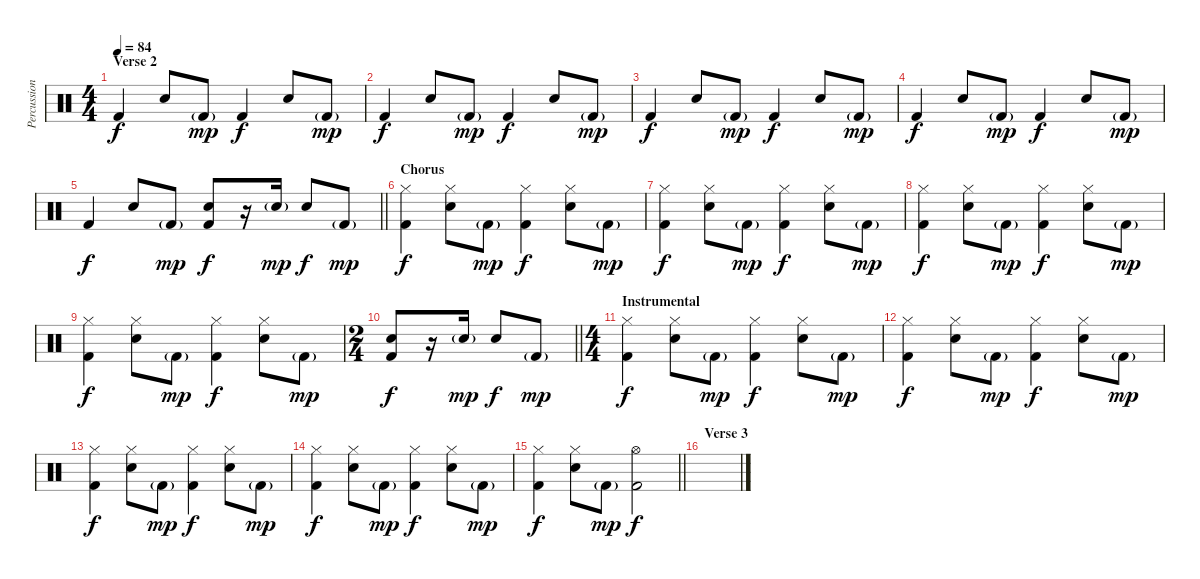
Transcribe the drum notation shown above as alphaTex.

\track ("Percussion" "Percussion") {instrument percussion}
\staff {score}
\articulation defaults
\ts (4 4)
\section ("" "Verse 2")
\tempo 84
\clef neutral
\ks c "Kick (hit) 2".4{dy f} "Snare (hit) 2".8 "Kick (hit) 2"{g}.8{dy mp} "Kick (hit) 2".4{dy f} "Snare (hit) 2".8 "Kick (hit) 2"{g}.8{dy mp}
|
"Kick (hit) 2".4{dy f} "Snare (hit) 2".8 "Kick (hit) 2"{g}.8{dy mp} "Kick (hit) 2".4{dy f} "Snare (hit) 2".8 "Kick (hit) 2"{g}.8{dy mp} |
"Kick (hit) 2".4{dy f} "Snare (hit) 2".8 "Kick (hit) 2"{g}.8{dy mp} "Kick (hit) 2".4{dy f} "Snare (hit) 2".8 "Kick (hit) 2"{g}.8{dy mp} |
"Kick (hit) 2".4{dy f} "Snare (hit) 2".8 "Kick (hit) 2"{g}.8{dy mp} "Kick (hit) 2".4{dy f} "Snare (hit) 2".8 "Kick (hit) 2"{g}.8{dy mp} |
\barLineRight lightlight "Kick (hit) 2".4{dy f} "Snare (hit) 2".8 "Kick (hit) 2"{g}.8{dy mp}
("Snare (hit) 2" "Kick (hit) 2").8{dy f} r.16 "Snare (hit) 2"{g}.16{dy mp} "Snare (hit) 2".8{dy f} "Kick (hit) 2"{g}.8{dy mp} |
\section ("" "Chorus")
("Hi-Hat (closed)" "Kick (hit) 2").4{dy f} ("Hi-Hat (closed)" "Snare (hit) 2").8 "Kick (hit) 2"{g}.8{dy mp} ("Hi-Hat (closed)" "Kick (hit) 2").4{dy f} ("Hi-Hat (closed)" "Snare (hit) 2").8 "Kick (hit) 2"{g}.8{dy mp} |
("Hi-Hat (closed)" "Kick (hit) 2").4{dy f} ("Hi-Hat (closed)" "Snare (hit) 2").8 "Kick (hit) 2"{g}.8{dy mp} ("Hi-Hat (closed)" "Kick (hit) 2").4{dy f} ("Hi-Hat (closed)" "Snare (hit) 2").8 "Kick (hit) 2"{g}.8{dy mp} |
("Hi-Hat (closed)" "Kick (hit) 2").4{dy f} ("Hi-Hat (closed)" "Snare (hit) 2").8 "Kick (hit) 2"{g}.8{dy mp} ("Hi-Hat (closed)" "Kick (hit) 2").4{dy f} ("Hi-Hat (closed)" "Snare (hit) 2").8 "Kick (hit) 2"{g}.8{dy mp} |
("Hi-Hat (closed)" "Kick (hit) 2").4{dy f} ("Hi-Hat (closed)" "Snare (hit) 2").8 "Kick (hit) 2"{g}.8{dy mp} ("Hi-Hat (closed)" "Kick (hit) 2").4{dy f} ("Hi-Hat (closed)" "Snare (hit) 2").8 "Kick (hit) 2"{g}.8{dy mp} |
\ts (2 4)
\barLineRight lightlight
("Snare (hit) 2" "Kick (hit) 2").8{dy f} r.16 "Snare (hit) 2"{g}.16{dy mp} "Snare (hit) 2".8{dy f} "Kick (hit) 2"{g}.8{dy mp} |
\ts (4 4)
\section ("" "Instrumental")
("Hi-Hat (closed)" "Kick (hit) 2").4{dy f} ("Hi-Hat (closed)" "Snare (hit) 2").8 "Kick (hit) 2"{g}.8{dy mp} ("Hi-Hat (closed)" "Kick (hit) 2").4{dy f} ("Hi-Hat (closed)" "Snare (hit) 2").8 "Kick (hit) 2"{g}.8{dy mp} |
("Hi-Hat (closed)" "Kick (hit) 2").4{dy f} ("Hi-Hat (closed)" "Snare (hit) 2").8 "Kick (hit) 2"{g}.8{dy mp} ("Hi-Hat (closed)" "Kick (hit) 2").4{dy f} ("Hi-Hat (closed)" "Snare (hit) 2").8 "Kick (hit) 2"{g}.8{dy mp} |
("Hi-Hat (closed)" "Kick (hit) 2").4{dy f} ("Hi-Hat (closed)" "Snare (hit) 2").8 "Kick (hit) 2"{g}.8{dy mp} ("Hi-Hat (closed)" "Kick (hit) 2").4{dy f} ("Hi-Hat (closed)" "Snare (hit) 2").8 "Kick (hit) 2"{g}.8{dy mp} |
("Hi-Hat (closed)" "Kick (hit) 2").4{dy f} ("Hi-Hat (closed)" "Snare (hit) 2").8 "Kick (hit) 2"{g}.8{dy mp} ("Hi-Hat (closed)" "Kick (hit) 2").4{dy f} ("Hi-Hat (closed)" "Snare (hit) 2").8 "Kick (hit) 2"{g}.8{dy mp} |
\barLineRight lightlight
("Hi-Hat (closed)" "Kick (hit) 2").4{dy f} ("Hi-Hat (closed)" "Snare (hit) 2").8 "Kick (hit) 2"{g}.8{dy mp} ("Hi-Hat (open)" "Kick (hit) 2").2{dy f} |
\section ("" "Verse 3")
